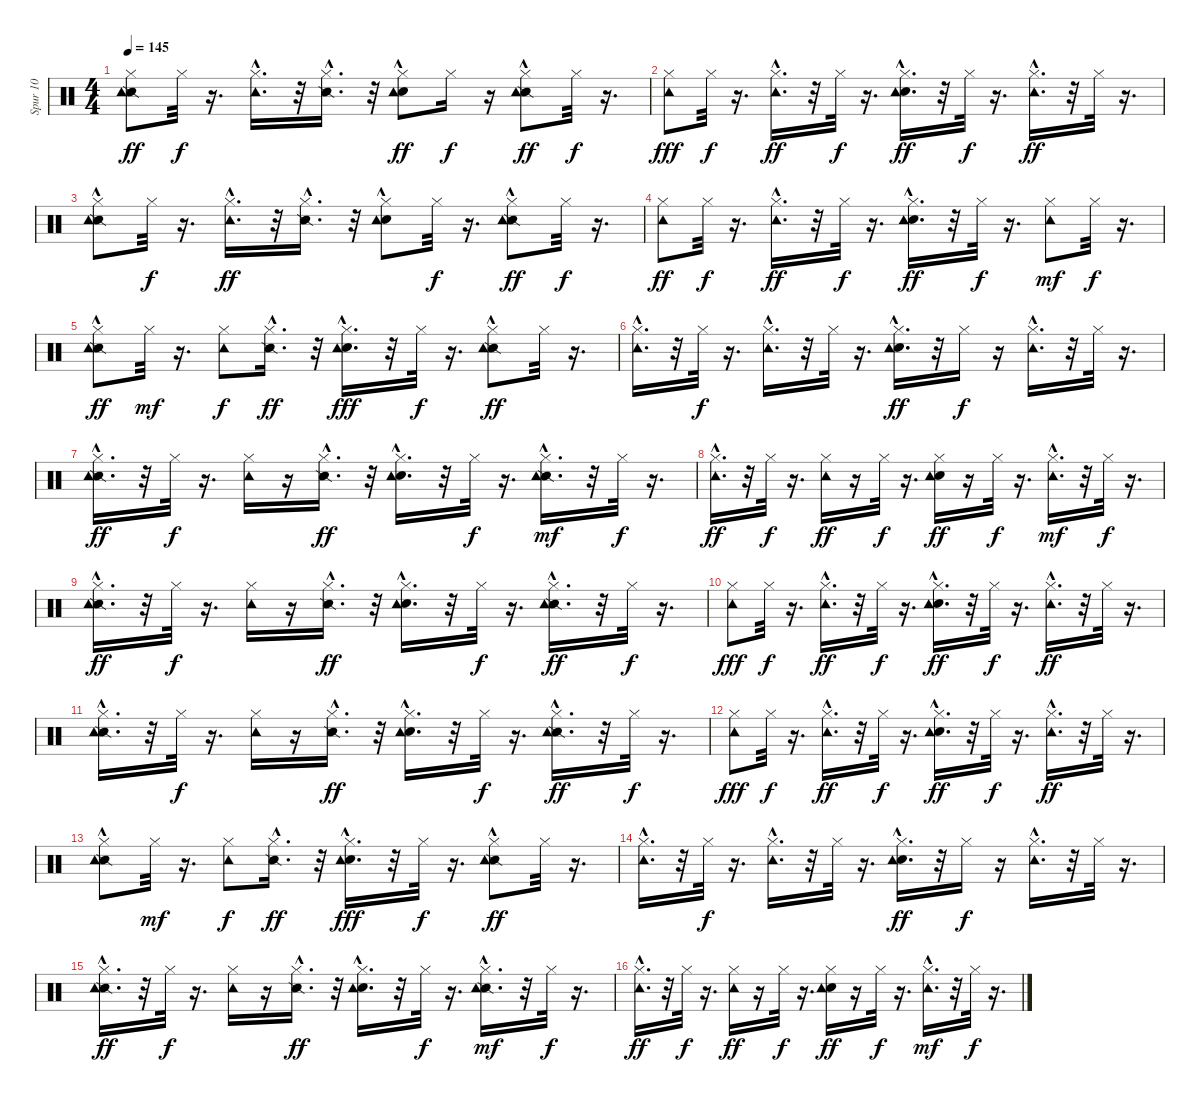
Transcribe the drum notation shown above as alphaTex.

\track ("Spur 10" "Spur 10") {instrument percussion}
\staff {score}
\articulation defaults
\ts (4 4)
\tempo 145
\clef neutral
\ks c
("Snare (side stick) 2" "Tambourine (hit)" "Hi-Hat (closed)").8{dy ff} "Hi-Hat (closed)".32{dy f} r.16{d} ("Tambourine (hit)"{hac} "Hi-Hat (closed)").16{d} r.32 ("Snare (side stick) 2"{hac} "Hi-Hat (closed)").16{d} r.32 ("Electric Snare (hit)"{hac} "Tambourine (hit)" "Hi-Hat (closed)").8{dy ff} "Hi-Hat (closed)".16{dy f} r.16 ("Snare (side stick) 2"{hac} "Tambourine (hit)" "Hi-Hat (closed)").8{dy ff} "Hi-Hat (closed)".32{dy f} r.16{d} |
("Tambourine (hit)" "Hi-Hat (closed)").8{dy fff} "Hi-Hat (closed)".32{dy f} r.16{d} ("Tambourine (hit)"{hac} "Hi-Hat (closed)").16{d dy ff} r.32 "Hi-Hat (closed)".32{dy f} r.16{d} ("Electric Snare (hit)" "Tambourine (hit)"{hac} "Hi-Hat (closed)").16{d dy ff} r.32 "Hi-Hat (closed)".32{dy f} r.16{d} ("Tambourine (hit)"{hac} "Hi-Hat (closed)").16{d dy ff} r.32 "Hi-Hat (closed)".32 r.16{d} |
("Snare (side stick) 2"{hac} "Tambourine (hit)" "Hi-Hat (closed)").8 "Hi-Hat (closed)".32{dy f} r.16{d} ("Tambourine (hit)"{hac} "Hi-Hat (closed)").16{d dy ff} r.32 ("Snare (side stick) 2"{hac} "Hi-Hat (closed)").16{d} r.32 ("Electric Snare (hit)"{hac} "Tambourine (hit)" "Hi-Hat (closed)").8 "Hi-Hat (closed)".32{dy f} r.16{d} ("Snare (side stick) 2"{hac} "Tambourine (hit)" "Hi-Hat (closed)").8{dy ff} "Hi-Hat (closed)".32{dy f} r.16{d} |
("Tambourine (hit)" "Hi-Hat (closed)").8{dy ff} "Hi-Hat (closed)".32{dy f} r.16{d} ("Tambourine (hit)"{hac} "Hi-Hat (closed)").16{d dy ff} r.32 "Hi-Hat (closed)".32{dy f} r.16{d} ("Electric Snare (hit)"{hac} "Tambourine (hit)"{hac} "Hi-Hat (closed)").16{d dy ff} r.32 "Hi-Hat (closed)".32{dy f} r.16{d} ("Tambourine (hit)" "Hi-Hat (closed)").8{dy mf} "Hi-Hat (closed)".32{dy f} r.16{d} |
("Snare (side stick) 2"{hac} "Tambourine (hit)" "Hi-Hat (closed)").8{dy ff} "Hi-Hat (closed)".32{dy mf} r.16{d} ("Tambourine (hit)" "Hi-Hat (closed)").8{dy f} ("Snare (side stick) 2"{hac} "Hi-Hat (closed)").16{d dy ff} r.32 ("Electric Snare (hit)"{hac} "Tambourine (hit)"{hac} "Hi-Hat (closed)").16{d dy fff} r.32 "Hi-Hat (closed)".32{dy f} r.16{d} ("Snare (side stick) 2"{hac} "Tambourine (hit)" "Hi-Hat (closed)").8{dy ff} "Hi-Hat (closed)".32 r.16{d} |
("Tambourine (hit)"{hac} "Hi-Hat (closed)").16{d} r.32 "Hi-Hat (closed)".32{dy f} r.16{d} ("Tambourine (hit)"{hac} "Hi-Hat (closed)").16{d} r.32 "Hi-Hat (closed)".32 r.16{d} ("Electric Snare (hit)" "Tambourine (hit)"{hac} "Hi-Hat (closed)").16{d dy ff} r.32 "Hi-Hat (closed)".16{dy f} r.16 ("Tambourine (hit)"{hac} "Hi-Hat (closed)").16{d} r.32 "Hi-Hat (closed)".32 r.16{d} |
("Snare (side stick) 2"{hac} "Tambourine (hit)"{hac} "Hi-Hat (closed)").16{d dy ff} r.32 "Hi-Hat (closed)".32{dy f} r.16{d} ("Tambourine (hit)" "Hi-Hat (closed)").16 r.16 ("Snare (side stick) 2"{hac} "Hi-Hat (closed)").16{d dy ff} r.32 ("Electric Snare (hit)"{hac} "Tambourine (hit)"{hac} "Hi-Hat (closed)").16{d} r.32 "Hi-Hat (closed)".32{dy f} r.16{d} ("Snare (side stick) 2"{hac} "Tambourine (hit)"{hac} "Hi-Hat (closed)").16{d dy mf} r.32 "Hi-Hat (closed)".32{dy f} r.16{d} |
("Tambourine (hit)"{hac} "Hi-Hat (closed)").16{d dy ff} r.32 "Hi-Hat (closed)".32{dy f} r.16{d} ("Tambourine (hit)" "Hi-Hat (closed)").16{dy ff} r.16 "Hi-Hat (closed)".32{dy f} r.16{d} ("Electric Snare (hit)" "Tambourine (hit)" "Hi-Hat (closed)").16{dy ff} r.16 "Hi-Hat (closed)".32{dy f} r.16{d} ("Tambourine (hit)"{hac} "Hi-Hat (closed)").16{d dy mf} r.32 "Hi-Hat (closed)".32{dy f} r.16{d} |
("Snare (side stick) 2"{hac} "Tambourine (hit)"{hac} "Hi-Hat (closed)").16{d dy ff} r.32 "Hi-Hat (closed)".32{dy f} r.16{d} ("Tambourine (hit)" "Hi-Hat (closed)").16 r.16 ("Snare (side stick) 2"{hac} "Hi-Hat (closed)").16{d dy ff} r.32 ("Electric Snare (hit)"{hac} "Tambourine (hit)" "Hi-Hat (closed)").16{d} r.32 "Hi-Hat (closed)".32{dy f} r.16{d} ("Snare (side stick) 2" "Tambourine (hit)"{hac} "Hi-Hat (closed)").16{d dy ff} r.32 "Hi-Hat (closed)".32{dy f} r.16{d} |
("Tambourine (hit)" "Hi-Hat (closed)").8{dy fff} "Hi-Hat (closed)".32{dy f} r.16{d} ("Tambourine (hit)"{hac} "Hi-Hat (closed)").16{d dy ff} r.32 "Hi-Hat (closed)".32{dy f} r.16{d} ("Electric Snare (hit)"{hac} "Tambourine (hit)"{hac} "Hi-Hat (closed)").16{d dy ff} r.32 "Hi-Hat (closed)".32{dy f} r.16{d} ("Tambourine (hit)"{hac} "Hi-Hat (closed)").16{d dy ff} r.32 "Hi-Hat (closed)".32 r.16{d} |
("Snare (side stick) 2"{hac} "Tambourine (hit)"{hac} "Hi-Hat (closed)").16{d} r.32 "Hi-Hat (closed)".32{dy f} r.16{d} ("Tambourine (hit)" "Hi-Hat (closed)").16 r.16 ("Snare (side stick) 2"{hac} "Hi-Hat (closed)").16{d dy ff} r.32 ("Electric Snare (hit)"{hac} "Tambourine (hit)" "Hi-Hat (closed)").16{d} r.32 "Hi-Hat (closed)".32{dy f} r.16{d} ("Snare (side stick) 2" "Tambourine (hit)"{hac} "Hi-Hat (closed)").16{d dy ff} r.32 "Hi-Hat (closed)".32{dy f} r.16{d} |
("Tambourine (hit)" "Hi-Hat (closed)").8{dy fff} "Hi-Hat (closed)".32{dy f} r.16{d} ("Tambourine (hit)"{hac} "Hi-Hat (closed)").16{d dy ff} r.32 "Hi-Hat (closed)".32{dy f} r.16{d} ("Electric Snare (hit)"{hac} "Tambourine (hit)"{hac} "Hi-Hat (closed)").16{d dy ff} r.32 "Hi-Hat (closed)".32{dy f} r.16{d} ("Tambourine (hit)"{hac} "Hi-Hat (closed)").16{d dy ff} r.32 "Hi-Hat (closed)".32 r.16{d} |
("Snare (side stick) 2"{hac} "Tambourine (hit)" "Hi-Hat (closed)").8 "Hi-Hat (closed)".32{dy mf} r.16{d} ("Tambourine (hit)" "Hi-Hat (closed)").8{dy f} ("Snare (side stick) 2"{hac} "Hi-Hat (closed)").16{d dy ff} r.32 ("Electric Snare (hit)"{hac} "Tambourine (hit)"{hac} "Hi-Hat (closed)").16{d dy fff} r.32 "Hi-Hat (closed)".32{dy f} r.16{d} ("Snare (side stick) 2"{hac} "Tambourine (hit)" "Hi-Hat (closed)").8{dy ff} "Hi-Hat (closed)".32 r.16{d} |
("Tambourine (hit)"{hac} "Hi-Hat (closed)").16{d} r.32 "Hi-Hat (closed)".32{dy f} r.16{d} ("Tambourine (hit)"{hac} "Hi-Hat (closed)").16{d} r.32 "Hi-Hat (closed)".32 r.16{d} ("Electric Snare (hit)" "Tambourine (hit)"{hac} "Hi-Hat (closed)").16{d dy ff} r.32 "Hi-Hat (closed)".16{dy f} r.16 ("Tambourine (hit)"{hac} "Hi-Hat (closed)").16{d} r.32 "Hi-Hat (closed)".32 r.16{d} |
("Snare (side stick) 2"{hac} "Tambourine (hit)"{hac} "Hi-Hat (closed)").16{d dy ff} r.32 "Hi-Hat (closed)".32{dy f} r.16{d} ("Tambourine (hit)" "Hi-Hat (closed)").16 r.16 ("Snare (side stick) 2"{hac} "Hi-Hat (closed)").16{d dy ff} r.32 ("Electric Snare (hit)"{hac} "Tambourine (hit)"{hac} "Hi-Hat (closed)").16{d} r.32 "Hi-Hat (closed)".32{dy f} r.16{d} ("Snare (side stick) 2"{hac} "Tambourine (hit)"{hac} "Hi-Hat (closed)").16{d dy mf} r.32 "Hi-Hat (closed)".32{dy f} r.16{d} |
("Tambourine (hit)"{hac} "Hi-Hat (closed)").16{d dy ff} r.32 "Hi-Hat (closed)".32{dy f} r.16{d} ("Tambourine (hit)" "Hi-Hat (closed)").16{dy ff} r.16 "Hi-Hat (closed)".32{dy f} r.16{d} ("Electric Snare (hit)" "Tambourine (hit)" "Hi-Hat (closed)").16{dy ff} r.16 "Hi-Hat (closed)".32{dy f} r.16{d} ("Tambourine (hit)"{hac} "Hi-Hat (closed)").16{d dy mf} r.32 "Hi-Hat (closed)".32{dy f} r.16{d}
